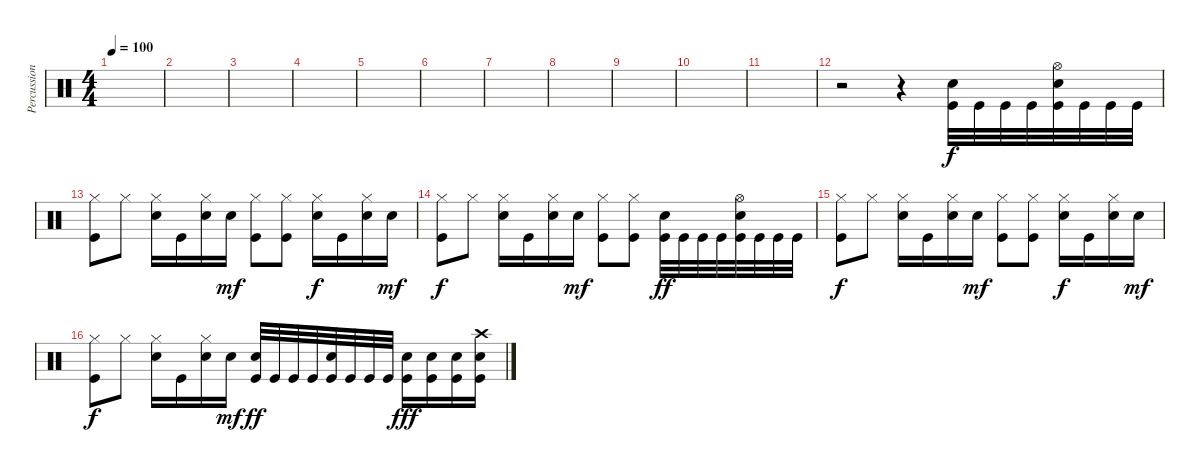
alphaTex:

\track ("Percussions" "Percussion") {instrument percussion}
\staff {score}
\articulation defaults
\ts (4 4)
\tempo 100
\clef neutral
\ks c
|
|
|
|
|
|
|
|
|
|
|
r.2 r.4 ("Snare (hit) 2" "Kick (hit)").32 "Kick (hit)".32 "Kick (hit)".32 "Kick (hit)".32 ("Hi-Hat (open)" "Snare (hit) 2" "Kick (hit)").32 "Kick (hit)".32 "Kick (hit)".32 "Kick (hit)".32 |
("Kick (hit)" "Hi-Hat (closed)").8{dy f} "Hi-Hat (closed)".8 ("Snare (hit) 2" "Hi-Hat (closed)").16 "Kick (hit)".16 ("Snare (hit) 2" "Hi-Hat (closed)").16 "Snare (hit) 2".16{dy mf} ("Kick (hit)" "Hi-Hat (closed)").8 ("Kick (hit)" "Hi-Hat (closed)").8 ("Snare (hit) 2" "Hi-Hat (closed)").16{dy f} "Kick (hit)".16 ("Snare (hit) 2" "Hi-Hat (closed)").16 "Snare (hit) 2".16{dy mf} |
("Kick (hit)" "Hi-Hat (closed)").8{dy f} "Hi-Hat (closed)".8 ("Snare (hit) 2" "Hi-Hat (closed)").16 "Kick (hit)".16 ("Snare (hit) 2" "Hi-Hat (closed)").16 "Snare (hit) 2".16{dy mf} ("Kick (hit)" "Hi-Hat (closed)").8 ("Kick (hit)" "Hi-Hat (closed)").8 ("Snare (hit) 2" "Kick (hit)").32{dy ff} "Kick (hit)".32 "Kick (hit)".32 "Kick (hit)".32 ("Hi-Hat (open)" "Snare (hit) 2" "Kick (hit)").32 "Kick (hit)".32 "Kick (hit)".32 "Kick (hit)".32 |
("Kick (hit)" "Hi-Hat (closed)").8{dy f} "Hi-Hat (closed)".8 ("Snare (hit) 2" "Hi-Hat (closed)").16 "Kick (hit)".16 ("Snare (hit) 2" "Hi-Hat (closed)").16 "Snare (hit) 2".16{dy mf} ("Kick (hit)" "Hi-Hat (closed)").8 ("Kick (hit)" "Hi-Hat (closed)").8 ("Snare (hit) 2" "Hi-Hat (closed)").16{dy f} "Kick (hit)".16 ("Snare (hit) 2" "Hi-Hat (closed)").16 "Snare (hit) 2".16{dy mf} |
("Kick (hit)" "Hi-Hat (closed)").8{dy f} "Hi-Hat (closed)".8 ("Snare (hit) 2" "Hi-Hat (closed)").16 "Kick (hit)".16 ("Snare (hit) 2" "Hi-Hat (closed)").16 "Snare (hit) 2".16{dy mf} ("Snare (hit) 2" "Kick (hit)").32{dy ff} "Kick (hit)".32 "Kick (hit)".32 "Kick (hit)".32 ("Snare (hit) 2" "Kick (hit)").32 "Kick (hit)".32 "Kick (hit)".32 "Kick (hit)".32 ("Snare (hit) 2" "Kick (hit)").16{dy fff} ("Snare (hit) 2" "Kick (hit)").16 ("Snare (hit) 2" "Kick (hit)").16 ("Crash high (hit)" "Snare (hit) 2" "Kick (hit)").16
